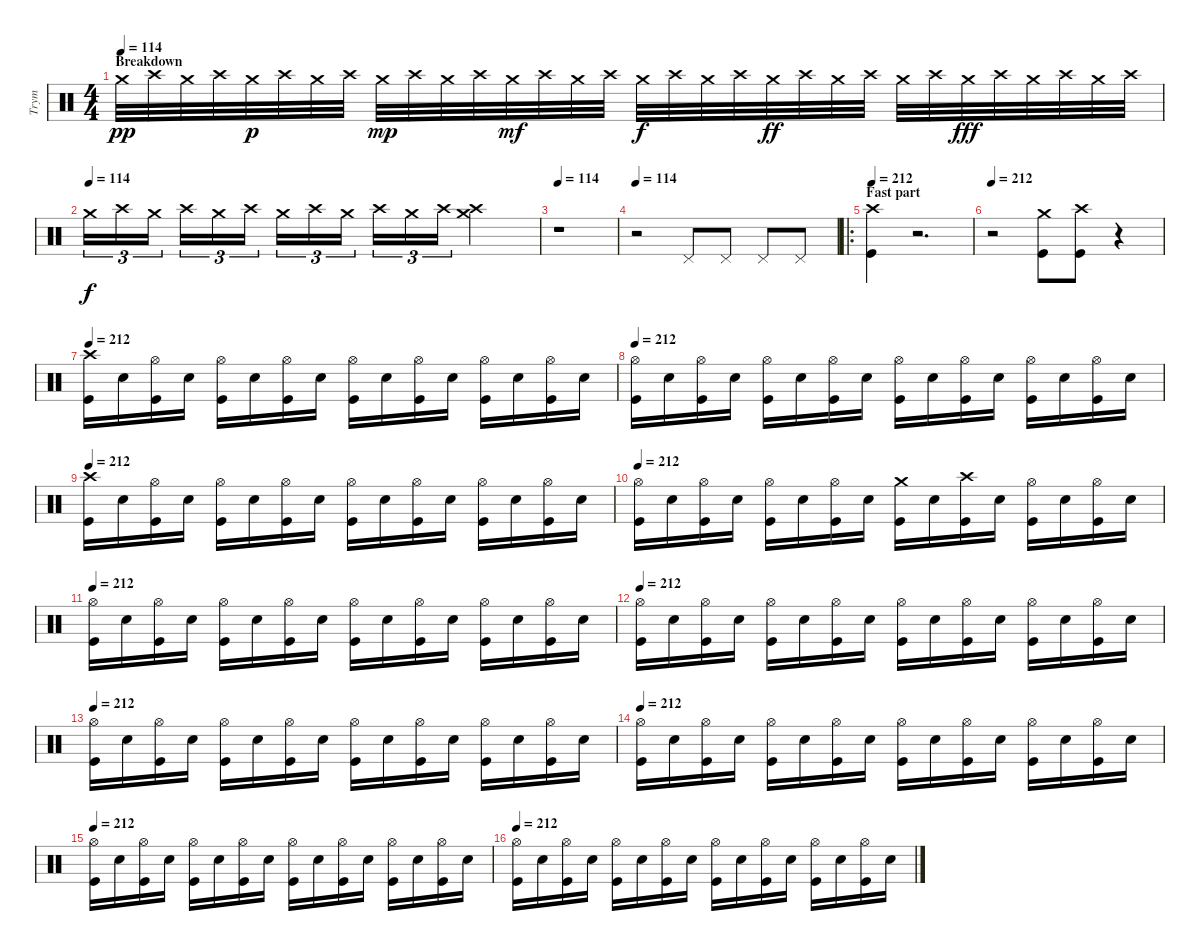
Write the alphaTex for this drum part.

\track ("Trym" "Trym") {instrument percussion}
\staff {score}
\articulation defaults
\ts (4 4)
\section ("" "Breakdown")
\tempo 114
\clef neutral
\ks c "Crash medium (hit)".32{dy pp} "Crash high (hit)".32 "Crash medium (hit)".32 "Crash high (hit)".32 "Crash medium (hit)".32{dy p} "Crash high (hit)".32 "Crash medium (hit)".32 "Crash high (hit)".32 "Crash medium (hit)".32{dy mp} "Crash high (hit)".32 "Crash medium (hit)".32 "Crash high (hit)".32 "Crash medium (hit)".32{dy mf} "Crash high (hit)".32 "Crash medium (hit)".32 "Crash high (hit)".32 "Crash medium (hit)".32{dy f} "Crash high (hit)".32 "Crash medium (hit)".32 "Crash high (hit)".32 "Crash medium (hit)".32{dy ff} "Crash high (hit)".32 "Crash medium (hit)".32 "Crash high (hit)".32 "Crash medium (hit)".32 "Crash high (hit)".32 "Crash medium (hit)".32{dy fff} "Crash high (hit)".32 "Crash medium (hit)".32 "Crash high (hit)".32 "Crash medium (hit)".32 "Crash high (hit)".32
|
\tempo (114)
"Crash medium (hit)".16{tu (3 2) dy f} "Crash high (hit)".16{tu (3 2)} "Crash medium (hit)".16{tu (3 2)} "Crash high (hit)".16{tu (3 2)} "Crash medium (hit)".16{tu (3 2)} "Crash high (hit)".16{tu (3 2)} "Crash medium (hit)".16{tu (3 2)} "Crash high (hit)".16{tu (3 2)} "Crash medium (hit)".16{tu (3 2)} "Crash high (hit)".16{tu (3 2)} "Crash medium (hit)".16{tu (3 2)} "Crash high (hit)".16{tu (3 2)} ("Crash high (hit)" "Crash medium (hit)").2 |
\tempo 114
r.1 |
\tempo 114
r.2 "Pedal Hi-Hat (hit)".8 "Pedal Hi-Hat (hit)".8 "Pedal Hi-Hat (hit)".8 "Pedal Hi-Hat (hit)".8 |
\ro
\section ("" "Fast part")
\tempo 208
\tempo 212
("Crash high (hit)" "Kick (hit)").4 r.2{d} |
\tempo 212
r.2 ("Crash medium (hit)" "Kick (hit)").8 ("Crash high (hit)" "Kick (hit)").8 r.4 |
\tempo 208
\tempo 212
("Crash high (hit)" "Kick (hit)").16 "Electric Snare (hit)".16 ("Hi-Hat (open)" "Kick (hit)").16 "Electric Snare (hit)".16 ("Hi-Hat (open)" "Kick (hit)").16 "Electric Snare (hit)".16 ("Hi-Hat (open)" "Kick (hit)").16 "Electric Snare (hit)".16 ("Hi-Hat (open)" "Kick (hit)").16 "Electric Snare (hit)".16 ("Hi-Hat (open)" "Kick (hit)").16 "Electric Snare (hit)".16 ("Hi-Hat (open)" "Kick (hit)").16 "Electric Snare (hit)".16 ("Hi-Hat (open)" "Kick (hit)").16 "Electric Snare (hit)".16 |
\tempo 212
("Hi-Hat (open)" "Kick (hit)").16 "Electric Snare (hit)".16 ("Hi-Hat (open)" "Kick (hit)").16 "Electric Snare (hit)".16 ("Hi-Hat (open)" "Kick (hit)").16 "Electric Snare (hit)".16 ("Hi-Hat (open)" "Kick (hit)").16 "Electric Snare (hit)".16 ("Hi-Hat (open)" "Kick (hit)").16 "Electric Snare (hit)".16 ("Hi-Hat (open)" "Kick (hit)").16 "Electric Snare (hit)".16 ("Hi-Hat (open)" "Kick (hit)").16 "Electric Snare (hit)".16 ("Hi-Hat (open)" "Kick (hit)").16 "Electric Snare (hit)".16 |
\tempo 208
\tempo 212
("Crash high (hit)" "Kick (hit)").16 "Electric Snare (hit)".16 ("Hi-Hat (open)" "Kick (hit)").16 "Electric Snare (hit)".16 ("Hi-Hat (open)" "Kick (hit)").16 "Electric Snare (hit)".16 ("Hi-Hat (open)" "Kick (hit)").16 "Electric Snare (hit)".16 ("Hi-Hat (open)" "Kick (hit)").16 "Electric Snare (hit)".16 ("Hi-Hat (open)" "Kick (hit)").16 "Electric Snare (hit)".16 ("Hi-Hat (open)" "Kick (hit)").16 "Electric Snare (hit)".16 ("Hi-Hat (open)" "Kick (hit)").16 "Electric Snare (hit)".16 |
\tempo 212
("Hi-Hat (open)" "Kick (hit)").16 "Electric Snare (hit)".16 ("Hi-Hat (open)" "Kick (hit)").16 "Electric Snare (hit)".16 ("Hi-Hat (open)" "Kick (hit)").16 "Electric Snare (hit)".16 ("Hi-Hat (open)" "Kick (hit)").16 "Electric Snare (hit)".16 ("Crash medium (hit)" "Kick (hit)").16 "Electric Snare (hit)".16 ("Crash high (hit)" "Kick (hit)").16 "Electric Snare (hit)".16 ("Hi-Hat (open)" "Kick (hit)").16 "Electric Snare (hit)".16 ("Hi-Hat (open)" "Kick (hit)").16 "Electric Snare (hit)".16 |
\tempo 208
\tempo 212
("Hi-Hat (open)" "Kick (hit)").16 "Electric Snare (hit)".16 ("Hi-Hat (open)" "Kick (hit)").16 "Electric Snare (hit)".16 ("Hi-Hat (open)" "Kick (hit)").16 "Electric Snare (hit)".16 ("Hi-Hat (open)" "Kick (hit)").16 "Electric Snare (hit)".16 ("Hi-Hat (open)" "Kick (hit)").16 "Electric Snare (hit)".16 ("Hi-Hat (open)" "Kick (hit)").16 "Electric Snare (hit)".16 ("Hi-Hat (open)" "Kick (hit)").16 "Electric Snare (hit)".16 ("Hi-Hat (open)" "Kick (hit)").16 "Electric Snare (hit)".16 |
\tempo 212
("Hi-Hat (open)" "Kick (hit)").16 "Electric Snare (hit)".16 ("Hi-Hat (open)" "Kick (hit)").16 "Electric Snare (hit)".16 ("Hi-Hat (open)" "Kick (hit)").16 "Electric Snare (hit)".16 ("Hi-Hat (open)" "Kick (hit)").16 "Electric Snare (hit)".16 ("Hi-Hat (open)" "Kick (hit)").16 "Electric Snare (hit)".16 ("Hi-Hat (open)" "Kick (hit)").16 "Electric Snare (hit)".16 ("Hi-Hat (open)" "Kick (hit)").16 "Electric Snare (hit)".16 ("Hi-Hat (open)" "Kick (hit)").16 "Electric Snare (hit)".16 |
\tempo 212
("Hi-Hat (open)" "Kick (hit)").16 "Electric Snare (hit)".16 ("Hi-Hat (open)" "Kick (hit)").16 "Electric Snare (hit)".16 ("Hi-Hat (open)" "Kick (hit)").16 "Electric Snare (hit)".16 ("Hi-Hat (open)" "Kick (hit)").16 "Electric Snare (hit)".16 ("Hi-Hat (open)" "Kick (hit)").16 "Electric Snare (hit)".16 ("Hi-Hat (open)" "Kick (hit)").16 "Electric Snare (hit)".16 ("Hi-Hat (open)" "Kick (hit)").16 "Electric Snare (hit)".16 ("Hi-Hat (open)" "Kick (hit)").16 "Electric Snare (hit)".16 |
\tempo 212
("Hi-Hat (open)" "Kick (hit)").16 "Electric Snare (hit)".16 ("Hi-Hat (open)" "Kick (hit)").16 "Electric Snare (hit)".16 ("Hi-Hat (open)" "Kick (hit)").16 "Electric Snare (hit)".16 ("Hi-Hat (open)" "Kick (hit)").16 "Electric Snare (hit)".16 ("Hi-Hat (open)" "Kick (hit)").16 "Electric Snare (hit)".16 ("Hi-Hat (open)" "Kick (hit)").16 "Electric Snare (hit)".16 ("Hi-Hat (open)" "Kick (hit)").16 "Electric Snare (hit)".16 ("Hi-Hat (open)" "Kick (hit)").16 "Electric Snare (hit)".16 |
\tempo 212
("Hi-Hat (open)" "Kick (hit)").16 "Electric Snare (hit)".16 ("Hi-Hat (open)" "Kick (hit)").16 "Electric Snare (hit)".16 ("Hi-Hat (open)" "Kick (hit)").16 "Electric Snare (hit)".16 ("Hi-Hat (open)" "Kick (hit)").16 "Electric Snare (hit)".16 ("Hi-Hat (open)" "Kick (hit)").16 "Electric Snare (hit)".16 ("Hi-Hat (open)" "Kick (hit)").16 "Electric Snare (hit)".16 ("Hi-Hat (open)" "Kick (hit)").16 "Electric Snare (hit)".16 ("Hi-Hat (open)" "Kick (hit)").16 "Electric Snare (hit)".16 |
\tempo 212
("Hi-Hat (open)" "Kick (hit)").16 "Electric Snare (hit)".16 ("Hi-Hat (open)" "Kick (hit)").16 "Electric Snare (hit)".16 ("Hi-Hat (open)" "Kick (hit)").16 "Electric Snare (hit)".16 ("Hi-Hat (open)" "Kick (hit)").16 "Electric Snare (hit)".16 ("Hi-Hat (open)" "Kick (hit)").16 "Electric Snare (hit)".16 ("Hi-Hat (open)" "Kick (hit)").16 "Electric Snare (hit)".16 ("Hi-Hat (open)" "Kick (hit)").16 "Electric Snare (hit)".16 ("Hi-Hat (open)" "Kick (hit)").16 "Electric Snare (hit)".16
